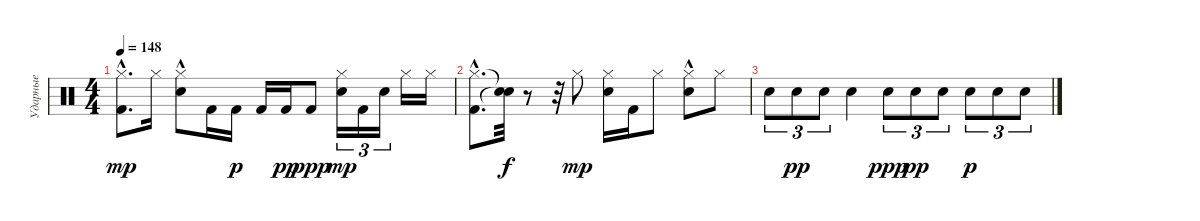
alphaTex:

\track ("Ударные" "Ударные") {instrument percussion}
\staff {score}
\articulation defaults
\ts (4 4)
\tempo 148
\clef neutral
\ks c
("Kick (hit) 2"{hac} "Hi-Hat (closed)"{hac}).8{d dy mp} "Hi-Hat (closed)".16 ("Electric Snare (hit)" "Hi-Hat (closed)"{hac}).8 "Kick (hit) 2".16 "Kick (hit) 2".16{dy p} "Kick (hit) 2".16 "Kick (hit) 2".16{dy pp} "Kick (hit) 2".8{dy ppp} ("Electric Snare (hit)" "Hi-Hat (closed)").16{tu (3 2) dy mp} "Kick (hit) 2".16{tu (3 2)} "Electric Snare (hit)".16{tu (3 2)} "Hi-Hat (closed)".16 "Hi-Hat (closed)".16 |
("Kick (hit) 2"{hac} "Hi-Hat (closed)"{hac}).8{d} ("Snare (hit)"{t} "Snare (hit)"{t}).32{dy f} r.8 r.32 "Hi-Hat (closed)".8{dy mp} ("Electric Snare (hit)" "Hi-Hat (closed)").16 "Kick (hit) 2".16 "Hi-Hat (closed)".8 ("Electric Snare (hit)"{hac} "Hi-Hat (closed)").8 "Hi-Hat (closed)".8 |
"Electric Snare (hit)".8{tu (3 2)} "Electric Snare (hit)".8{tu (3 2) dy pp} "Electric Snare (hit)".8{tu (3 2)} "Electric Snare (hit)".4 "Electric Snare (hit)".8{tu (3 2) dy ppp} "Electric Snare (hit)".8{tu (3 2) dy pp} "Electric Snare (hit)".8{tu (3 2)} "Electric Snare (hit)".8{tu (3 2) dy p} "Electric Snare (hit)".8{tu (3 2)} "Electric Snare (hit)".8{tu (3 2)}
